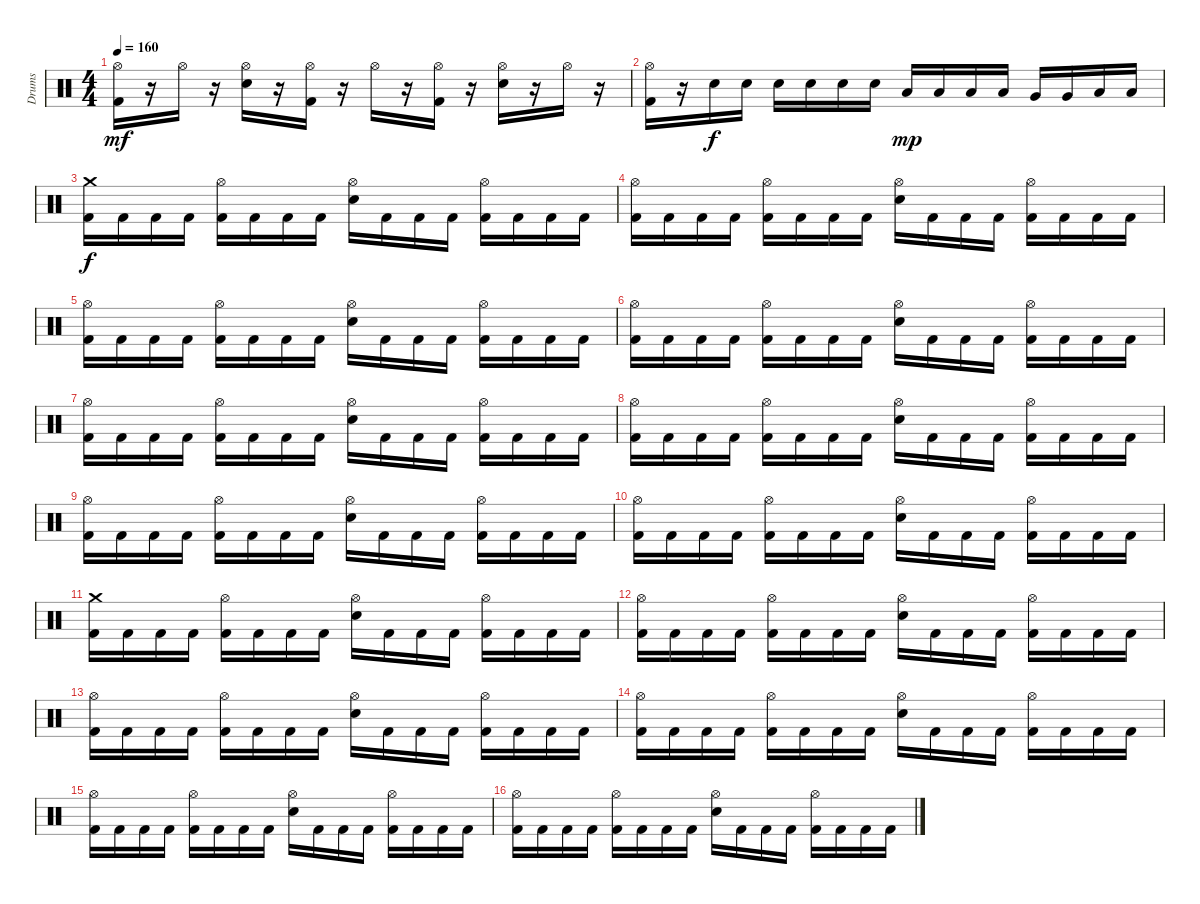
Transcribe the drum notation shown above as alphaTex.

\track ("Drums" "Drums") {instrument percussion}
\staff {score}
\articulation defaults
\ts (4 4)
\tempo 160
\clef neutral
\ks c
("Hi-Hat (open)" "Kick (hit) 2").16{dy mf} r.16 "Hi-Hat (open)".16 r.16 ("Hi-Hat (open)" "Snare (hit) 2").16 r.16 ("Hi-Hat (open)" "Kick (hit) 2").16 r.16 "Hi-Hat (open)".16 r.16 ("Hi-Hat (open)" "Kick (hit) 2").16 r.16 ("Hi-Hat (open)" "Snare (hit) 2").16 r.16 "Hi-Hat (open)".16 r.16 |
("Hi-Hat (open)" "Kick (hit) 2").16 r.16 "Snare (hit) 2".16{dy f} "Snare (hit) 2".16 "Snare (hit) 2".16 "Snare (hit) 2".16 "Snare (hit) 2".16 "Snare (hit) 2".16 "Low Tom (hit)".16{dy mp} "Low Tom (hit)".16 "Low Tom (hit)".16 "Low Tom (hit)".16 "Very Low Tom (hit)".16 "Very Low Tom (hit)".16 "Low Floor Tom (hit)".16 "Low Floor Tom (hit)".16 |
("Crash medium (hit)" "Kick (hit) 2").16{dy f} "Kick (hit) 2".16 "Kick (hit) 2".16 "Kick (hit) 2".16 ("Hi-Hat (open)" "Kick (hit) 2").16 "Kick (hit) 2".16 "Kick (hit) 2".16 "Kick (hit) 2".16 ("Hi-Hat (open)" "Snare (hit) 2").16 "Kick (hit) 2".16 "Kick (hit) 2".16 "Kick (hit) 2".16 ("Hi-Hat (open)" "Kick (hit) 2").16 "Kick (hit) 2".16 "Kick (hit) 2".16 "Kick (hit) 2".16 |
("Hi-Hat (open)" "Kick (hit) 2").16 "Kick (hit) 2".16 "Kick (hit) 2".16 "Kick (hit) 2".16 ("Hi-Hat (open)" "Kick (hit) 2").16 "Kick (hit) 2".16 "Kick (hit) 2".16 "Kick (hit) 2".16 ("Hi-Hat (open)" "Snare (hit) 2").16 "Kick (hit) 2".16 "Kick (hit) 2".16 "Kick (hit) 2".16 ("Hi-Hat (open)" "Kick (hit) 2").16 "Kick (hit) 2".16 "Kick (hit) 2".16 "Kick (hit) 2".16 |
("Hi-Hat (open)" "Kick (hit) 2").16 "Kick (hit) 2".16 "Kick (hit) 2".16 "Kick (hit) 2".16 ("Hi-Hat (open)" "Kick (hit) 2").16 "Kick (hit) 2".16 "Kick (hit) 2".16 "Kick (hit) 2".16 ("Hi-Hat (open)" "Snare (hit) 2").16 "Kick (hit) 2".16 "Kick (hit) 2".16 "Kick (hit) 2".16 ("Hi-Hat (open)" "Kick (hit) 2").16 "Kick (hit) 2".16 "Kick (hit) 2".16 "Kick (hit) 2".16 |
("Hi-Hat (open)" "Kick (hit) 2").16 "Kick (hit) 2".16 "Kick (hit) 2".16 "Kick (hit) 2".16 ("Hi-Hat (open)" "Kick (hit) 2").16 "Kick (hit) 2".16 "Kick (hit) 2".16 "Kick (hit) 2".16 ("Hi-Hat (open)" "Snare (hit) 2").16 "Kick (hit) 2".16 "Kick (hit) 2".16 "Kick (hit) 2".16 ("Hi-Hat (open)" "Kick (hit) 2").16 "Kick (hit) 2".16 "Kick (hit) 2".16 "Kick (hit) 2".16 |
("Hi-Hat (open)" "Kick (hit) 2").16 "Kick (hit) 2".16 "Kick (hit) 2".16 "Kick (hit) 2".16 ("Hi-Hat (open)" "Kick (hit) 2").16 "Kick (hit) 2".16 "Kick (hit) 2".16 "Kick (hit) 2".16 ("Hi-Hat (open)" "Snare (hit) 2").16 "Kick (hit) 2".16 "Kick (hit) 2".16 "Kick (hit) 2".16 ("Hi-Hat (open)" "Kick (hit) 2").16 "Kick (hit) 2".16 "Kick (hit) 2".16 "Kick (hit) 2".16 |
("Hi-Hat (open)" "Kick (hit) 2").16 "Kick (hit) 2".16 "Kick (hit) 2".16 "Kick (hit) 2".16 ("Hi-Hat (open)" "Kick (hit) 2").16 "Kick (hit) 2".16 "Kick (hit) 2".16 "Kick (hit) 2".16 ("Hi-Hat (open)" "Snare (hit) 2").16 "Kick (hit) 2".16 "Kick (hit) 2".16 "Kick (hit) 2".16 ("Hi-Hat (open)" "Kick (hit) 2").16 "Kick (hit) 2".16 "Kick (hit) 2".16 "Kick (hit) 2".16 |
("Hi-Hat (open)" "Kick (hit) 2").16 "Kick (hit) 2".16 "Kick (hit) 2".16 "Kick (hit) 2".16 ("Hi-Hat (open)" "Kick (hit) 2").16 "Kick (hit) 2".16 "Kick (hit) 2".16 "Kick (hit) 2".16 ("Hi-Hat (open)" "Snare (hit) 2").16 "Kick (hit) 2".16 "Kick (hit) 2".16 "Kick (hit) 2".16 ("Hi-Hat (open)" "Kick (hit) 2").16 "Kick (hit) 2".16 "Kick (hit) 2".16 "Kick (hit) 2".16 |
("Hi-Hat (open)" "Kick (hit) 2").16 "Kick (hit) 2".16 "Kick (hit) 2".16 "Kick (hit) 2".16 ("Hi-Hat (open)" "Kick (hit) 2").16 "Kick (hit) 2".16 "Kick (hit) 2".16 "Kick (hit) 2".16 ("Hi-Hat (open)" "Snare (hit) 2").16 "Kick (hit) 2".16 "Kick (hit) 2".16 "Kick (hit) 2".16 ("Hi-Hat (open)" "Kick (hit) 2").16 "Kick (hit) 2".16 "Kick (hit) 2".16 "Kick (hit) 2".16 |
("Crash medium (hit)" "Kick (hit) 2").16 "Kick (hit) 2".16 "Kick (hit) 2".16 "Kick (hit) 2".16 ("Hi-Hat (open)" "Kick (hit) 2").16 "Kick (hit) 2".16 "Kick (hit) 2".16 "Kick (hit) 2".16 ("Hi-Hat (open)" "Snare (hit) 2").16 "Kick (hit) 2".16 "Kick (hit) 2".16 "Kick (hit) 2".16 ("Hi-Hat (open)" "Kick (hit) 2").16 "Kick (hit) 2".16 "Kick (hit) 2".16 "Kick (hit) 2".16 |
("Hi-Hat (open)" "Kick (hit) 2").16 "Kick (hit) 2".16 "Kick (hit) 2".16 "Kick (hit) 2".16 ("Hi-Hat (open)" "Kick (hit) 2").16 "Kick (hit) 2".16 "Kick (hit) 2".16 "Kick (hit) 2".16 ("Hi-Hat (open)" "Snare (hit) 2").16 "Kick (hit) 2".16 "Kick (hit) 2".16 "Kick (hit) 2".16 ("Hi-Hat (open)" "Kick (hit) 2").16 "Kick (hit) 2".16 "Kick (hit) 2".16 "Kick (hit) 2".16 |
("Hi-Hat (open)" "Kick (hit) 2").16 "Kick (hit) 2".16 "Kick (hit) 2".16 "Kick (hit) 2".16 ("Hi-Hat (open)" "Kick (hit) 2").16 "Kick (hit) 2".16 "Kick (hit) 2".16 "Kick (hit) 2".16 ("Hi-Hat (open)" "Snare (hit) 2").16 "Kick (hit) 2".16 "Kick (hit) 2".16 "Kick (hit) 2".16 ("Hi-Hat (open)" "Kick (hit) 2").16 "Kick (hit) 2".16 "Kick (hit) 2".16 "Kick (hit) 2".16 |
("Hi-Hat (open)" "Kick (hit) 2").16 "Kick (hit) 2".16 "Kick (hit) 2".16 "Kick (hit) 2".16 ("Hi-Hat (open)" "Kick (hit) 2").16 "Kick (hit) 2".16 "Kick (hit) 2".16 "Kick (hit) 2".16 ("Hi-Hat (open)" "Snare (hit) 2").16 "Kick (hit) 2".16 "Kick (hit) 2".16 "Kick (hit) 2".16 ("Hi-Hat (open)" "Kick (hit) 2").16 "Kick (hit) 2".16 "Kick (hit) 2".16 "Kick (hit) 2".16 |
("Hi-Hat (open)" "Kick (hit) 2").16 "Kick (hit) 2".16 "Kick (hit) 2".16 "Kick (hit) 2".16 ("Hi-Hat (open)" "Kick (hit) 2").16 "Kick (hit) 2".16 "Kick (hit) 2".16 "Kick (hit) 2".16 ("Hi-Hat (open)" "Snare (hit) 2").16 "Kick (hit) 2".16 "Kick (hit) 2".16 "Kick (hit) 2".16 ("Hi-Hat (open)" "Kick (hit) 2").16 "Kick (hit) 2".16 "Kick (hit) 2".16 "Kick (hit) 2".16 |
("Hi-Hat (open)" "Kick (hit) 2").16 "Kick (hit) 2".16 "Kick (hit) 2".16 "Kick (hit) 2".16 ("Hi-Hat (open)" "Kick (hit) 2").16 "Kick (hit) 2".16 "Kick (hit) 2".16 "Kick (hit) 2".16 ("Hi-Hat (open)" "Snare (hit) 2").16 "Kick (hit) 2".16 "Kick (hit) 2".16 "Kick (hit) 2".16 ("Hi-Hat (open)" "Kick (hit) 2").16 "Kick (hit) 2".16 "Kick (hit) 2".16 "Kick (hit) 2".16
